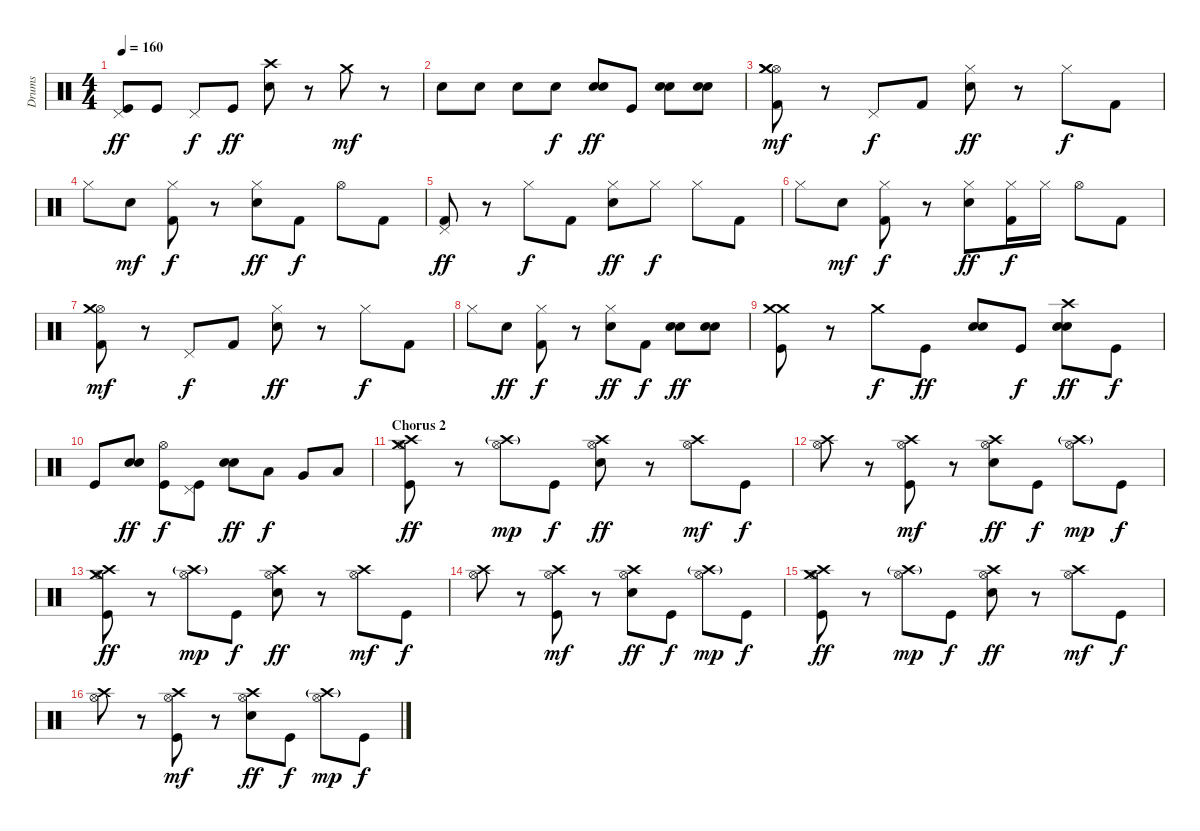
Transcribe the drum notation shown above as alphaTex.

\track ("Drums" "Drums") {instrument percussion}
\staff {score}
\articulation defaults
\ts (4 4)
\tempo 160
\clef neutral
\ks c
("Kick (hit)" "Pedal Hi-Hat (hit)").8{dy ff} "Kick (hit)".8 "Pedal Hi-Hat (hit)".8{dy f} "Kick (hit)".8{dy ff} ("Electric Snare (hit)" "Crash high (hit)").8 r.8 "Crash medium (hit)".8{dy mf} r.8 |
"Electric Snare (hit)".8 "Electric Snare (hit)".8 "Electric Snare (hit)".8 "Electric Snare (hit)".8{dy f} ("Electric Snare (hit)" "Electric Snare (hit)").8{dy ff} "Kick (hit)".8 ("Electric Snare (hit)" "Electric Snare (hit)").8 ("Electric Snare (hit)" "Electric Snare (hit)").8 |
("Kick (hit) 2" "Hi-Hat (open)" "Crash medium (hit)" "Crash medium (hit)").8{dy mf} r.8 "Pedal Hi-Hat (hit)".8{dy f} "Kick (hit) 2".8 ("Electric Snare (hit)" "Hi-Hat (closed)").8{dy ff} r.8 "Hi-Hat (closed)".8{dy f} "Kick (hit) 2".8 |
"Hi-Hat (closed)".8 "Electric Snare (hit)".8{dy mf} ("Kick (hit) 2" "Hi-Hat (closed)").8{dy f} r.8 ("Electric Snare (hit)" "Hi-Hat (closed)").8{dy ff} "Kick (hit) 2".8{dy f} "Hi-Hat (open)".8 "Kick (hit) 2".8 |
("Kick (hit) 2" "Pedal Hi-Hat (hit)").8{dy ff} r.8 "Hi-Hat (closed)".8{dy f} "Kick (hit) 2".8 ("Electric Snare (hit)" "Hi-Hat (closed)").8{dy ff} "Hi-Hat (closed)".8{dy f} "Hi-Hat (closed)".8 "Kick (hit) 2".8 |
"Hi-Hat (closed)".8 "Electric Snare (hit)".8{dy mf} ("Kick (hit) 2" "Hi-Hat (closed)").8{dy f} r.8 ("Electric Snare (hit)" "Hi-Hat (closed)").8{dy ff} ("Kick (hit) 2" "Hi-Hat (closed)").16{dy f} "Hi-Hat (closed)".16 "Hi-Hat (open)".8 "Kick (hit) 2".8 |
("Kick (hit) 2" "Hi-Hat (open)" "Crash medium (hit)").8{dy mf} r.8 "Pedal Hi-Hat (hit)".8{dy f} "Kick (hit) 2".8 ("Electric Snare (hit)" "Hi-Hat (closed)").8{dy ff} r.8 "Hi-Hat (closed)".8{dy f} "Kick (hit) 2".8 |
"Hi-Hat (closed)".8 "Electric Snare (hit)".8{dy ff} ("Kick (hit) 2" "Hi-Hat (closed)").8{dy f} r.8 ("Electric Snare (hit)" "Hi-Hat (closed)").8{dy ff} "Kick (hit) 2".8{dy f} ("Electric Snare (hit)" "Electric Snare (hit)").8{dy ff} ("Electric Snare (hit)" "Electric Snare (hit)").8 |
("Kick (hit)" "Crash medium (hit)" "Crash medium (hit)").8 r.8 "Crash medium (hit)".8{dy f} "Kick (hit)".8{dy ff} ("Electric Snare (hit)" "Electric Snare (hit)").8 "Kick (hit)".8{dy f} ("Electric Snare (hit)" "Electric Snare (hit)" "Crash high (hit)").8{dy ff} "Kick (hit)".8{dy f} |
"Kick (hit)".8 ("Electric Snare (hit)" "Electric Snare (hit)").8{dy ff} ("Kick (hit)" "Hi-Hat (open)").8{dy f} ("Kick (hit)" "Pedal Hi-Hat (hit)").8 ("Electric Snare (hit)" "Electric Snare (hit)").8{dy ff} "Low Tom (hit)".8{dy f} "Very Low Tom (hit)".8 "Low Floor Tom (hit)".8 |
\section ("" "Chorus 2")
("Kick (hit)" "Hi-Hat (open)" "Crash high (hit)" "Crash medium (hit)").8{dy ff} r.8 ("Hi-Hat (open)" "Crash high (hit)"{g}).8{dy mp} "Kick (hit)".8{dy f} ("Electric Snare (hit)" "Hi-Hat (open)" "Crash high (hit)").8{dy ff} r.8 ("Hi-Hat (open)" "Crash high (hit)").8{dy mf} "Kick (hit)".8{dy f} |
("Hi-Hat (open)" "Crash high (hit)").8 r.8 ("Kick (hit)" "Hi-Hat (open)" "Crash high (hit)").8{dy mf} r.8 ("Electric Snare (hit)" "Hi-Hat (open)" "Crash high (hit)").8{dy ff} "Kick (hit)".8{dy f} ("Hi-Hat (open)" "Crash high (hit)"{g}).8{dy mp} "Kick (hit)".8{dy f} |
("Kick (hit)" "Hi-Hat (open)" "Crash high (hit)" "Crash medium (hit)").8{dy ff} r.8 ("Hi-Hat (open)" "Crash high (hit)"{g}).8{dy mp} "Kick (hit)".8{dy f} ("Electric Snare (hit)" "Hi-Hat (open)" "Crash high (hit)").8{dy ff} r.8 ("Hi-Hat (open)" "Crash high (hit)").8{dy mf} "Kick (hit)".8{dy f} |
("Hi-Hat (open)" "Crash high (hit)").8 r.8 ("Kick (hit)" "Hi-Hat (open)" "Crash high (hit)").8{dy mf} r.8 ("Electric Snare (hit)" "Hi-Hat (open)" "Crash high (hit)").8{dy ff} "Kick (hit)".8{dy f} ("Hi-Hat (open)" "Crash high (hit)"{g}).8{dy mp} "Kick (hit)".8{dy f} |
("Kick (hit)" "Hi-Hat (open)" "Crash high (hit)" "Crash medium (hit)").8{dy ff} r.8 ("Hi-Hat (open)" "Crash high (hit)"{g}).8{dy mp} "Kick (hit)".8{dy f} ("Electric Snare (hit)" "Hi-Hat (open)" "Crash high (hit)").8{dy ff} r.8 ("Hi-Hat (open)" "Crash high (hit)").8{dy mf} "Kick (hit)".8{dy f} |
("Hi-Hat (open)" "Crash high (hit)").8 r.8 ("Kick (hit)" "Hi-Hat (open)" "Crash high (hit)").8{dy mf} r.8 ("Electric Snare (hit)" "Hi-Hat (open)" "Crash high (hit)").8{dy ff} "Kick (hit)".8{dy f} ("Hi-Hat (open)" "Crash high (hit)"{g}).8{dy mp} "Kick (hit)".8{dy f}
